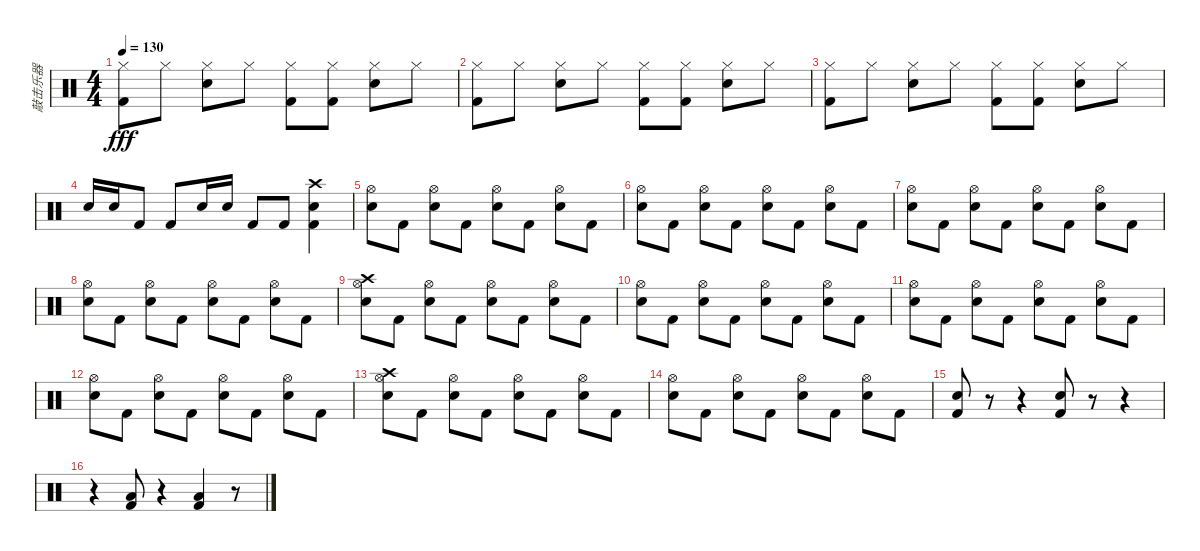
\track ("敲击乐器" "敲击乐器") {instrument percussion}
\staff {score}
\articulation defaults
\ts (4 4)
\tempo 130
\clef neutral
\ks c
("Hi-Hat (closed)" "Kick (hit) 2").8{dy fff} "Hi-Hat (closed)".8 ("Hi-Hat (closed)" "Electric Snare (hit)").8 "Hi-Hat (closed)".8 ("Hi-Hat (closed)" "Kick (hit) 2").8 ("Hi-Hat (closed)" "Kick (hit) 2").8 ("Hi-Hat (closed)" "Electric Snare (hit)").8 "Hi-Hat (closed)".8 |
("Hi-Hat (closed)" "Kick (hit) 2").8 "Hi-Hat (closed)".8 ("Hi-Hat (closed)" "Electric Snare (hit)").8 "Hi-Hat (closed)".8 ("Hi-Hat (closed)" "Kick (hit) 2").8 ("Hi-Hat (closed)" "Kick (hit) 2").8 ("Hi-Hat (closed)" "Electric Snare (hit)").8 "Hi-Hat (closed)".8 |
("Hi-Hat (closed)" "Kick (hit) 2").8 "Hi-Hat (closed)".8 ("Hi-Hat (closed)" "Electric Snare (hit)").8 "Hi-Hat (closed)".8 ("Hi-Hat (closed)" "Kick (hit) 2").8 ("Hi-Hat (closed)" "Kick (hit) 2").8 ("Hi-Hat (closed)" "Electric Snare (hit)").8 "Hi-Hat (closed)".8 |
"Electric Snare (hit)".16 "Electric Snare (hit)".16 "Kick (hit) 2".8 "Kick (hit) 2".8 "Electric Snare (hit)".16 "Electric Snare (hit)".16 "Kick (hit) 2".8 "Kick (hit) 2".8 ("Crash high (hit)" "Electric Snare (hit)" "Kick (hit) 2").4 |
("Hi-Hat (open)" "Electric Snare (hit)").8 "Kick (hit) 2".8 ("Hi-Hat (open)" "Electric Snare (hit)").8 "Kick (hit) 2".8 ("Hi-Hat (open)" "Electric Snare (hit)").8 "Kick (hit) 2".8 ("Hi-Hat (open)" "Electric Snare (hit)").8 "Kick (hit) 2".8 |
("Hi-Hat (open)" "Electric Snare (hit)").8 "Kick (hit) 2".8 ("Hi-Hat (open)" "Electric Snare (hit)").8 "Kick (hit) 2".8 ("Hi-Hat (open)" "Electric Snare (hit)").8 "Kick (hit) 2".8 ("Hi-Hat (open)" "Electric Snare (hit)").8 "Kick (hit) 2".8 |
("Hi-Hat (open)" "Electric Snare (hit)").8 "Kick (hit) 2".8 ("Hi-Hat (open)" "Electric Snare (hit)").8 "Kick (hit) 2".8 ("Hi-Hat (open)" "Electric Snare (hit)").8 "Kick (hit) 2".8 ("Hi-Hat (open)" "Electric Snare (hit)").8 "Kick (hit) 2".8 |
("Hi-Hat (open)" "Electric Snare (hit)").8 "Kick (hit) 2".8 ("Hi-Hat (open)" "Electric Snare (hit)").8 "Kick (hit) 2".8 ("Hi-Hat (open)" "Electric Snare (hit)").8 "Kick (hit) 2".8 ("Hi-Hat (open)" "Electric Snare (hit)").8 "Kick (hit) 2".8 |
("Crash high (hit)" "Hi-Hat (open)" "Electric Snare (hit)").8 "Kick (hit) 2".8 ("Hi-Hat (open)" "Electric Snare (hit)").8 "Kick (hit) 2".8 ("Hi-Hat (open)" "Electric Snare (hit)").8 "Kick (hit) 2".8 ("Hi-Hat (open)" "Electric Snare (hit)").8 "Kick (hit) 2".8 |
("Hi-Hat (open)" "Electric Snare (hit)").8 "Kick (hit) 2".8 ("Hi-Hat (open)" "Electric Snare (hit)").8 "Kick (hit) 2".8 ("Hi-Hat (open)" "Electric Snare (hit)").8 "Kick (hit) 2".8 ("Hi-Hat (open)" "Electric Snare (hit)").8 "Kick (hit) 2".8 |
("Hi-Hat (open)" "Electric Snare (hit)").8 "Kick (hit) 2".8 ("Hi-Hat (open)" "Electric Snare (hit)").8 "Kick (hit) 2".8 ("Hi-Hat (open)" "Electric Snare (hit)").8 "Kick (hit) 2".8 ("Hi-Hat (open)" "Electric Snare (hit)").8 "Kick (hit) 2".8 |
("Hi-Hat (open)" "Electric Snare (hit)").8 "Kick (hit) 2".8 ("Hi-Hat (open)" "Electric Snare (hit)").8 "Kick (hit) 2".8 ("Hi-Hat (open)" "Electric Snare (hit)").8 "Kick (hit) 2".8 ("Hi-Hat (open)" "Electric Snare (hit)").8 "Kick (hit) 2".8 |
("Crash high (hit)" "Hi-Hat (open)" "Electric Snare (hit)").8 "Kick (hit) 2".8 ("Hi-Hat (open)" "Electric Snare (hit)").8 "Kick (hit) 2".8 ("Hi-Hat (open)" "Electric Snare (hit)").8 "Kick (hit) 2".8 ("Hi-Hat (open)" "Electric Snare (hit)").8 "Kick (hit) 2".8 |
("Hi-Hat (open)" "Electric Snare (hit)").8 "Kick (hit) 2".8 ("Hi-Hat (open)" "Electric Snare (hit)").8 "Kick (hit) 2".8 ("Hi-Hat (open)" "Electric Snare (hit)").8 "Kick (hit) 2".8 ("Hi-Hat (open)" "Electric Snare (hit)").8 "Kick (hit) 2".8 |
("Electric Snare (hit)" "Kick (hit) 2").8 r.8 r.4 ("Electric Snare (hit)" "Kick (hit) 2").8 r.8 r.4 |
r.4 ("Low Tom (hit)" "Kick (hit) 2").8 r.4 ("Low Tom (hit)" "Kick (hit) 2").4 r.8
